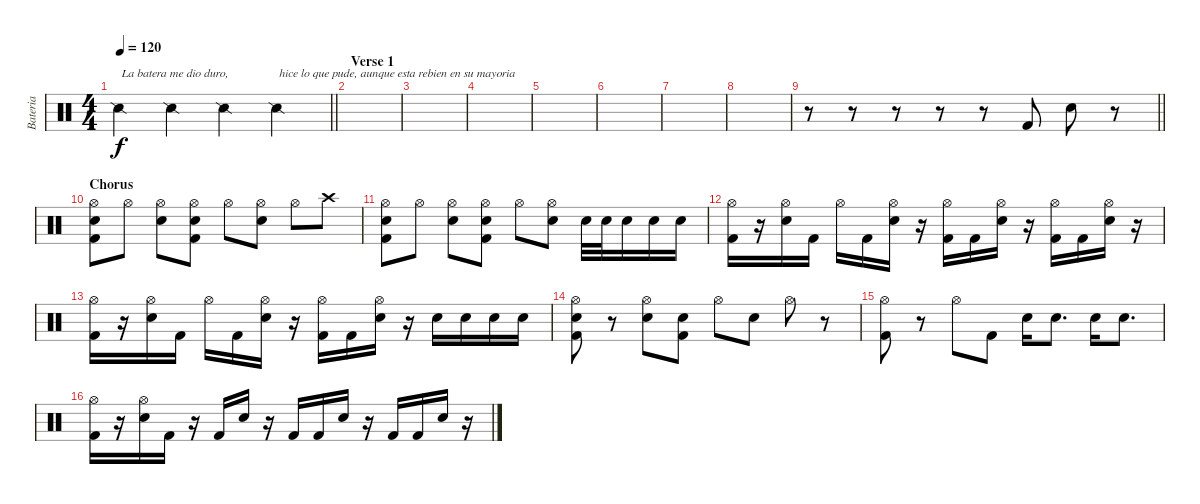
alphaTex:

\track ("Bateria" "Bateria") {instrument percussion}
\staff {score}
\articulation defaults
\ts (4 4)
\tempo 120
\clef neutral
\barLineRight lightlight
\ks c "Snare (side stick) 2".4{txt "La batera me dio duro," dy f} "Snare (side stick) 2".4 "Snare (side stick) 2".4 "Snare (side stick) 2".4{txt "hice lo que pude, aunque esta rebien en su mayoria"}
|
\section ("" "Verse 1")
|
|
|
|
|
|
|
\barLineRight lightlight
r.8 r.8 r.8 r.8 r.8 "Kick (hit) 2".8 "Electric Snare (hit)".8 r.8 |
\section ("" "Chorus")
("Hi-Hat (open)" "Electric Snare (hit)" "Kick (hit) 2").8 "Hi-Hat (open)".8 ("Hi-Hat (open)" "Electric Snare (hit)").8 ("Hi-Hat (open)" "Electric Snare (hit)" "Kick (hit) 2").8 "Hi-Hat (open)".8 ("Hi-Hat (open)" "Electric Snare (hit)").8 "Hi-Hat (open)".8 "Crash high (hit)".8 |
("Hi-Hat (open)" "Electric Snare (hit)" "Kick (hit) 2").8 "Hi-Hat (open)".8 ("Hi-Hat (open)" "Electric Snare (hit)").8 ("Hi-Hat (open)" "Electric Snare (hit)" "Kick (hit) 2").8 "Hi-Hat (open)".8 ("Hi-Hat (open)" "Electric Snare (hit)").8 "Electric Snare (hit)".32 "Electric Snare (hit)".32 "Electric Snare (hit)".16 "Electric Snare (hit)".16 "Electric Snare (hit)".16 |
("Hi-Hat (open)" "Kick (hit) 2").16 r.16 ("Hi-Hat (open)" "Electric Snare (hit)").16 "Kick (hit) 2".16 "Hi-Hat (open)".16 "Kick (hit) 2".16 ("Hi-Hat (open)" "Electric Snare (hit)").16 r.16 ("Hi-Hat (open)" "Kick (hit) 2").16 "Kick (hit) 2".16 ("Hi-Hat (open)" "Electric Snare (hit)").16 r.16 ("Hi-Hat (open)" "Kick (hit) 2").16 "Kick (hit) 2".16 ("Hi-Hat (open)" "Electric Snare (hit)").16 r.16 |
("Hi-Hat (open)" "Kick (hit) 2").16 r.16 ("Hi-Hat (open)" "Electric Snare (hit)").16 "Kick (hit) 2".16 "Hi-Hat (open)".16 "Kick (hit) 2".16 ("Hi-Hat (open)" "Electric Snare (hit)").16 r.16 ("Hi-Hat (open)" "Kick (hit) 2").16 "Kick (hit) 2".16 ("Hi-Hat (open)" "Electric Snare (hit)").16 r.16 "Electric Snare (hit)".16 "Electric Snare (hit)".16 "Electric Snare (hit)".16 "Electric Snare (hit)".16 |
("Hi-Hat (open)" "Electric Snare (hit)" "Kick (hit) 2").8 r.8 ("Hi-Hat (open)" "Electric Snare (hit)").8 ("Electric Snare (hit)" "Kick (hit) 2").8 "Hi-Hat (open)".8 "Electric Snare (hit)".8 "Hi-Hat (open)".8 r.8 |
("Hi-Hat (open)" "Kick (hit) 2").8 r.8 "Hi-Hat (open)".8 "Kick (hit) 2".8 "Electric Snare (hit)".16 "Electric Snare (hit)".8{d} "Electric Snare (hit)".16 "Electric Snare (hit)".8{d} |
("Hi-Hat (open)" "Kick (hit) 2").16 r.16 ("Hi-Hat (open)" "Electric Snare (hit)").16 "Kick (hit) 2".16 r.16 "Kick (hit) 2".16 "Electric Snare (hit)".16 r.16 "Kick (hit) 2".16 "Kick (hit) 2".16 "Electric Snare (hit)".16 r.16 "Kick (hit) 2".16 "Kick (hit) 2".16 "Electric Snare (hit)".16 r.16
